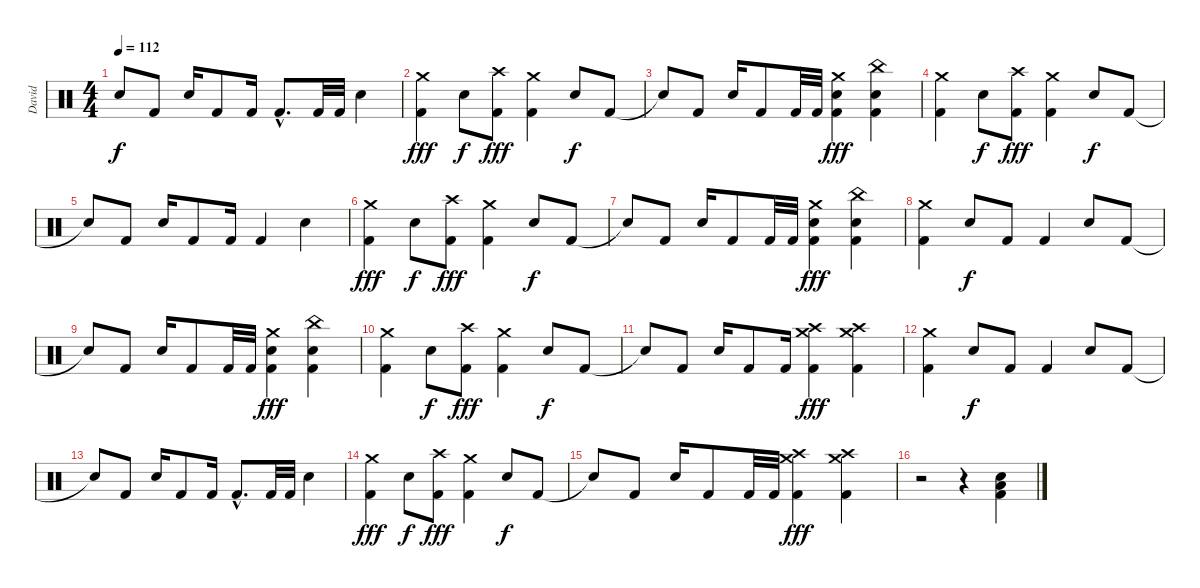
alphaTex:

\track ("David" "David") {instrument percussion}
\staff {score}
\articulation defaults
\ts (4 4)
\tempo 112
\clef neutral
\ks c "Snare (hit)"{t}.8{dy f} "Kick (hit) 2".8 "Snare (hit) 2".16 "Kick (hit) 2".8 "Kick (hit) 2".16 "Kick (hit) 2"{hac}.8{d} "Kick (hit) 2".32 "Kick (hit) 2".32 "Snare (hit) 2".4
|
("Crash medium (hit)" "Kick (hit) 2").4{dy fff} "Snare (hit) 2".8{dy f} ("Crash high (hit)" "Kick (hit) 2").8{dy fff} ("Crash medium (hit)" "Kick (hit) 2").4 "Snare (hit) 2".8{dy f} "Kick (hit) 2".8 |
"Snare (hit)"{t}.8 "Kick (hit) 2".8 "Snare (hit) 2".16 "Kick (hit) 2".8 "Kick (hit) 2".32 "Kick (hit) 2".32 ("Crash medium (hit)" "Snare (hit) 2" "Kick (hit) 2").4{dy fff} ("China (hit)" "Snare (hit) 2" "Kick (hit) 2").4 |
("Crash medium (hit)" "Kick (hit) 2").4 "Snare (hit) 2".8{dy f} ("Crash high (hit)" "Kick (hit) 2").8{dy fff} ("Crash medium (hit)" "Kick (hit) 2").4 "Snare (hit) 2".8{dy f} "Kick (hit) 2".8 |
"Snare (hit)"{t}.8 "Kick (hit) 2".8 "Snare (hit) 2".16 "Kick (hit) 2".8 "Kick (hit) 2".16 "Kick (hit) 2".4 "Snare (hit) 2".4 |
("Crash medium (hit)" "Kick (hit) 2").4{dy fff} "Snare (hit) 2".8{dy f} ("Crash high (hit)" "Kick (hit) 2").8{dy fff} ("Crash medium (hit)" "Kick (hit) 2").4 "Snare (hit) 2".8{dy f} "Kick (hit) 2".8 |
"Snare (hit)"{t}.8 "Kick (hit) 2".8 "Snare (hit) 2".16 "Kick (hit) 2".8 "Kick (hit) 2".32 "Kick (hit) 2".32 ("Crash medium (hit)" "Snare (hit) 2" "Kick (hit) 2").4{dy fff} ("China (hit)" "Snare (hit) 2" "Kick (hit) 2").4 |
("Crash medium (hit)" "Kick (hit) 2").4 "Snare (hit) 2".8{dy f} "Kick (hit) 2".8 "Kick (hit) 2".4 "Snare (hit) 2".8 "Kick (hit) 2".8 |
"Snare (hit)"{t}.8 "Kick (hit) 2".8 "Snare (hit) 2".16 "Kick (hit) 2".8 "Kick (hit) 2".32 "Kick (hit) 2".32 ("Crash medium (hit)" "Snare (hit) 2" "Kick (hit) 2").4{dy fff} ("China (hit)" "Snare (hit) 2" "Kick (hit) 2").4 |
("Crash medium (hit)" "Kick (hit) 2").4 "Snare (hit) 2".8{dy f} ("Crash high (hit)" "Kick (hit) 2").8{dy fff} ("Crash medium (hit)" "Kick (hit) 2").4 "Snare (hit) 2".8{dy f} "Kick (hit) 2".8 |
"Snare (hit)"{t}.8 "Kick (hit) 2".8 "Snare (hit) 2".16 "Kick (hit) 2".8 "Kick (hit) 2".16 ("Crash medium (hit)" "Crash high (hit)" "Kick (hit) 2").4{dy fff} ("Crash high (hit)" "Crash medium (hit)" "Kick (hit) 2").4 |
("Crash medium (hit)" "Kick (hit) 2").4 "Snare (hit) 2".8{dy f} "Kick (hit) 2".8 "Kick (hit) 2".4 "Snare (hit) 2".8 "Kick (hit) 2".8 |
"Snare (hit)"{t}.8 "Kick (hit) 2".8 "Snare (hit) 2".16 "Kick (hit) 2".8 "Kick (hit) 2".16 "Kick (hit) 2"{hac}.8{d} "Kick (hit) 2".32 "Kick (hit) 2".32 "Snare (hit) 2".4 |
("Crash medium (hit)" "Kick (hit) 2").4{dy fff} "Snare (hit) 2".8{dy f} ("Crash high (hit)" "Kick (hit) 2").8{dy fff} ("Crash medium (hit)" "Kick (hit) 2").4 "Snare (hit) 2".8{dy f} "Kick (hit) 2".8 |
"Snare (hit)"{t}.8 "Kick (hit) 2".8 "Snare (hit) 2".16 "Kick (hit) 2".8 "Kick (hit) 2".32 "Kick (hit) 2".32 ("Crash high (hit)" "Crash medium (hit)" "Kick (hit) 2").4{dy fff} ("Crash high (hit)" "Crash medium (hit)" "Kick (hit) 2").4 |
r.2 r.4 ("Snare (hit) 2" "Low Floor Tom (hit)" "Kick (hit) 2").4
